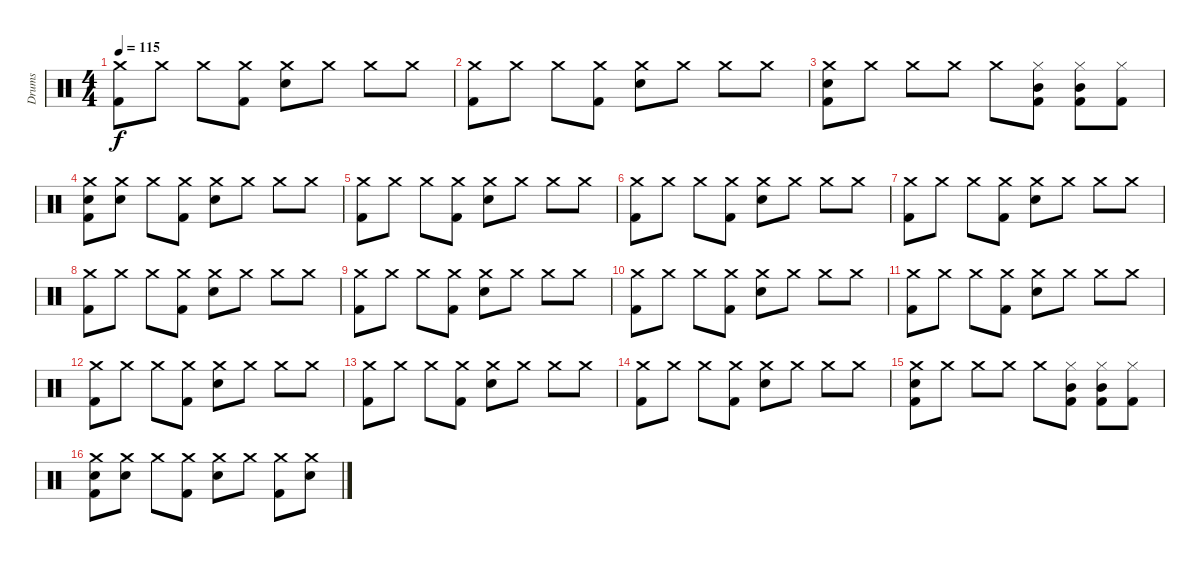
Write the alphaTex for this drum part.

\track ("Drums" "Drums") {instrument percussion}
\staff {score}
\articulation defaults
\ts (4 4)
\tempo 115
\clef neutral
\ks c
("Kick (hit) 2" "Crash medium (hit)").8{dy f} "Crash medium (hit)".8 "Crash medium (hit)".8 ("Kick (hit) 2" "Crash medium (hit)").8 ("Electric Snare (hit)" "Crash medium (hit)").8 "Crash medium (hit)".8 "Crash medium (hit)".8 "Crash medium (hit)".8 |
("Kick (hit) 2" "Crash medium (hit)").8 "Crash medium (hit)".8 "Crash medium (hit)".8 ("Kick (hit) 2" "Crash medium (hit)").8 ("Electric Snare (hit)" "Crash medium (hit)").8 "Crash medium (hit)".8 "Crash medium (hit)".8 "Crash medium (hit)".8 |
("Kick (hit) 2" "Electric Snare (hit)" "Crash medium (hit)").8 "Crash medium (hit)".8 "Crash medium (hit)".8 "Crash medium (hit)".8 "Crash medium (hit)".8 ("Kick (hit) 2" "Hi-Hat (closed)" "Mid Tom (hit)").8 ("Kick (hit) 2" "Hi-Hat (closed)" "Mid Tom (hit)").8 ("Kick (hit) 2" "Hi-Hat (closed)").8 |
("Kick (hit) 2" "Electric Snare (hit)" "Crash medium (hit)").8 ("Electric Snare (hit)" "Crash medium (hit)").8 "Crash medium (hit)".8 ("Kick (hit) 2" "Crash medium (hit)").8 ("Electric Snare (hit)" "Crash medium (hit)").8 "Crash medium (hit)".8 "Crash medium (hit)".8 "Crash medium (hit)".8 |
("Kick (hit) 2" "Crash medium (hit)").8 "Crash medium (hit)".8 "Crash medium (hit)".8 ("Kick (hit) 2" "Crash medium (hit)").8 ("Electric Snare (hit)" "Crash medium (hit)").8 "Crash medium (hit)".8 "Crash medium (hit)".8 "Crash medium (hit)".8 |
("Kick (hit) 2" "Crash medium (hit)").8 "Crash medium (hit)".8 "Crash medium (hit)".8 ("Kick (hit) 2" "Crash medium (hit)").8 ("Electric Snare (hit)" "Crash medium (hit)").8 "Crash medium (hit)".8 "Crash medium (hit)".8 "Crash medium (hit)".8 |
("Kick (hit) 2" "Crash medium (hit)").8 "Crash medium (hit)".8 "Crash medium (hit)".8 ("Kick (hit) 2" "Crash medium (hit)").8 ("Electric Snare (hit)" "Crash medium (hit)").8 "Crash medium (hit)".8 "Crash medium (hit)".8 "Crash medium (hit)".8 |
("Kick (hit) 2" "Crash medium (hit)").8 "Crash medium (hit)".8 "Crash medium (hit)".8 ("Kick (hit) 2" "Crash medium (hit)").8 ("Electric Snare (hit)" "Crash medium (hit)").8 "Crash medium (hit)".8 "Crash medium (hit)".8 "Crash medium (hit)".8 |
("Kick (hit) 2" "Crash medium (hit)").8 "Crash medium (hit)".8 "Crash medium (hit)".8 ("Kick (hit) 2" "Crash medium (hit)").8 ("Electric Snare (hit)" "Crash medium (hit)").8 "Crash medium (hit)".8 "Crash medium (hit)".8 "Crash medium (hit)".8 |
("Kick (hit) 2" "Crash medium (hit)").8 "Crash medium (hit)".8 "Crash medium (hit)".8 ("Kick (hit) 2" "Crash medium (hit)").8 ("Electric Snare (hit)" "Crash medium (hit)").8 "Crash medium (hit)".8 "Crash medium (hit)".8 "Crash medium (hit)".8 |
("Kick (hit) 2" "Crash medium (hit)").8 "Crash medium (hit)".8 "Crash medium (hit)".8 ("Kick (hit) 2" "Crash medium (hit)").8 ("Electric Snare (hit)" "Crash medium (hit)").8 "Crash medium (hit)".8 "Crash medium (hit)".8 "Crash medium (hit)".8 |
("Kick (hit) 2" "Crash medium (hit)").8 "Crash medium (hit)".8 "Crash medium (hit)".8 ("Kick (hit) 2" "Crash medium (hit)").8 ("Electric Snare (hit)" "Crash medium (hit)").8 "Crash medium (hit)".8 "Crash medium (hit)".8 "Crash medium (hit)".8 |
("Kick (hit) 2" "Crash medium (hit)").8 "Crash medium (hit)".8 "Crash medium (hit)".8 ("Kick (hit) 2" "Crash medium (hit)").8 ("Electric Snare (hit)" "Crash medium (hit)").8 "Crash medium (hit)".8 "Crash medium (hit)".8 "Crash medium (hit)".8 |
("Kick (hit) 2" "Crash medium (hit)").8 "Crash medium (hit)".8 "Crash medium (hit)".8 ("Kick (hit) 2" "Crash medium (hit)").8 ("Electric Snare (hit)" "Crash medium (hit)").8 "Crash medium (hit)".8 "Crash medium (hit)".8 "Crash medium (hit)".8 |
("Kick (hit) 2" "Electric Snare (hit)" "Crash medium (hit)").8 "Crash medium (hit)".8 "Crash medium (hit)".8 "Crash medium (hit)".8 "Crash medium (hit)".8 ("Kick (hit) 2" "Hi-Hat (closed)" "Mid Tom (hit)").8 ("Kick (hit) 2" "Hi-Hat (closed)" "Mid Tom (hit)").8 ("Kick (hit) 2" "Hi-Hat (closed)").8 |
("Kick (hit) 2" "Electric Snare (hit)" "Crash medium (hit)").8 ("Electric Snare (hit)" "Crash medium (hit)").8 "Crash medium (hit)".8 ("Kick (hit) 2" "Crash medium (hit)").8 ("Electric Snare (hit)" "Crash medium (hit)").8 "Crash medium (hit)".8 ("Kick (hit) 2" "Crash medium (hit)").8 ("Electric Snare (hit)" "Crash medium (hit)").8
